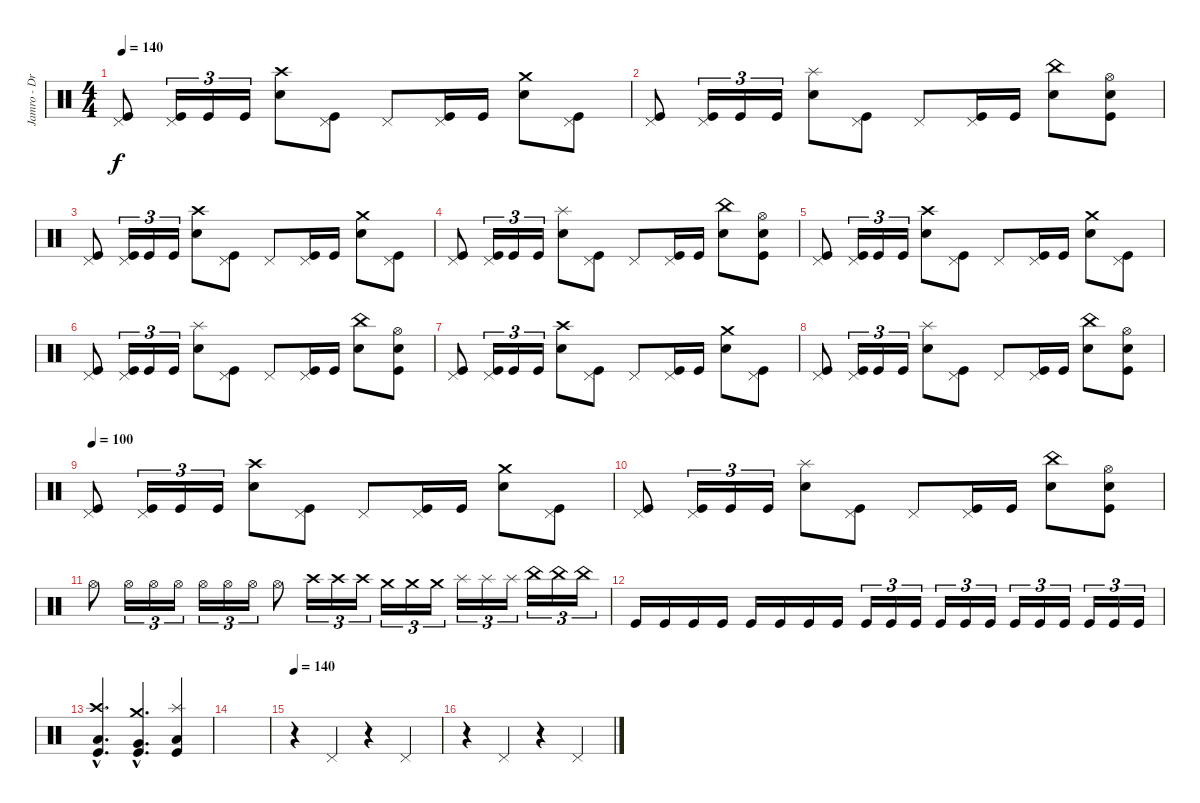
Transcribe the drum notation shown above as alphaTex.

\track ("Jamro - Drums" "Jamro - Dr") {instrument percussion}
\staff {score}
\articulation defaults
\ts (4 4)
\tempo 140
\clef neutral
\ks c
("Kick (hit)" "Pedal Hi-Hat (hit)").8{dy f} ("Kick (hit)" "Pedal Hi-Hat (hit)").16{tu (3 2)} "Kick (hit)".16{tu (3 2)} "Kick (hit)".16{tu (3 2)} ("Electric Snare (hit)" "Crash high (hit)").8 ("Kick (hit)" "Pedal Hi-Hat (hit)").8 "Pedal Hi-Hat (hit)".8 ("Kick (hit)" "Pedal Hi-Hat (hit)").16 "Kick (hit)".16 ("Electric Snare (hit)" "Crash medium (hit)").8 ("Kick (hit)" "Pedal Hi-Hat (hit)").8 |
("Kick (hit)" "Pedal Hi-Hat (hit)").8 ("Kick (hit)" "Pedal Hi-Hat (hit)").16{tu (3 2)} "Kick (hit)".16{tu (3 2)} "Kick (hit)".16{tu (3 2)} ("Electric Snare (hit)" "Splash (hit)").8 ("Kick (hit)" "Pedal Hi-Hat (hit)").8 "Pedal Hi-Hat (hit)".8 ("Kick (hit)" "Pedal Hi-Hat (hit)").16 "Kick (hit)".16 ("Electric Snare (hit)" "China (hit)").8 ("Kick (hit)" "Electric Snare (hit)" "Hi-Hat (open)").8 |
("Kick (hit)" "Pedal Hi-Hat (hit)").8 ("Kick (hit)" "Pedal Hi-Hat (hit)").16{tu (3 2)} "Kick (hit)".16{tu (3 2)} "Kick (hit)".16{tu (3 2)} ("Electric Snare (hit)" "Crash high (hit)").8 ("Kick (hit)" "Pedal Hi-Hat (hit)").8 "Pedal Hi-Hat (hit)".8 ("Kick (hit)" "Pedal Hi-Hat (hit)").16 "Kick (hit)".16 ("Electric Snare (hit)" "Crash medium (hit)").8 ("Kick (hit)" "Pedal Hi-Hat (hit)").8 |
("Kick (hit)" "Pedal Hi-Hat (hit)").8 ("Kick (hit)" "Pedal Hi-Hat (hit)").16{tu (3 2)} "Kick (hit)".16{tu (3 2)} "Kick (hit)".16{tu (3 2)} ("Electric Snare (hit)" "Splash (hit)").8 ("Kick (hit)" "Pedal Hi-Hat (hit)").8 "Pedal Hi-Hat (hit)".8 ("Kick (hit)" "Pedal Hi-Hat (hit)").16 "Kick (hit)".16 ("Electric Snare (hit)" "China (hit)").8 ("Kick (hit)" "Electric Snare (hit)" "Hi-Hat (open)").8 |
("Kick (hit)" "Pedal Hi-Hat (hit)").8 ("Kick (hit)" "Pedal Hi-Hat (hit)").16{tu (3 2)} "Kick (hit)".16{tu (3 2)} "Kick (hit)".16{tu (3 2)} ("Electric Snare (hit)" "Crash high (hit)").8 ("Kick (hit)" "Pedal Hi-Hat (hit)").8 "Pedal Hi-Hat (hit)".8 ("Kick (hit)" "Pedal Hi-Hat (hit)").16 "Kick (hit)".16 ("Electric Snare (hit)" "Crash medium (hit)").8 ("Kick (hit)" "Pedal Hi-Hat (hit)").8 |
("Kick (hit)" "Pedal Hi-Hat (hit)").8 ("Kick (hit)" "Pedal Hi-Hat (hit)").16{tu (3 2)} "Kick (hit)".16{tu (3 2)} "Kick (hit)".16{tu (3 2)} ("Electric Snare (hit)" "Splash (hit)").8 ("Kick (hit)" "Pedal Hi-Hat (hit)").8 "Pedal Hi-Hat (hit)".8 ("Kick (hit)" "Pedal Hi-Hat (hit)").16 "Kick (hit)".16 ("Electric Snare (hit)" "China (hit)").8 ("Kick (hit)" "Electric Snare (hit)" "Hi-Hat (open)").8 |
("Kick (hit)" "Pedal Hi-Hat (hit)").8 ("Kick (hit)" "Pedal Hi-Hat (hit)").16{tu (3 2)} "Kick (hit)".16{tu (3 2)} "Kick (hit)".16{tu (3 2)} ("Electric Snare (hit)" "Crash high (hit)").8 ("Kick (hit)" "Pedal Hi-Hat (hit)").8 "Pedal Hi-Hat (hit)".8 ("Kick (hit)" "Pedal Hi-Hat (hit)").16 "Kick (hit)".16 ("Electric Snare (hit)" "Crash medium (hit)").8 ("Kick (hit)" "Pedal Hi-Hat (hit)").8 |
("Kick (hit)" "Pedal Hi-Hat (hit)").8 ("Kick (hit)" "Pedal Hi-Hat (hit)").16{tu (3 2)} "Kick (hit)".16{tu (3 2)} "Kick (hit)".16{tu (3 2)} ("Electric Snare (hit)" "Splash (hit)").8 ("Kick (hit)" "Pedal Hi-Hat (hit)").8 "Pedal Hi-Hat (hit)".8 ("Kick (hit)" "Pedal Hi-Hat (hit)").16 "Kick (hit)".16 ("Electric Snare (hit)" "China (hit)").8 ("Kick (hit)" "Electric Snare (hit)" "Hi-Hat (open)").8 |
\tempo 100
("Kick (hit)" "Pedal Hi-Hat (hit)").8 ("Kick (hit)" "Pedal Hi-Hat (hit)").16{tu (3 2)} "Kick (hit)".16{tu (3 2)} "Kick (hit)".16{tu (3 2)} ("Electric Snare (hit)" "Crash high (hit)").8 ("Kick (hit)" "Pedal Hi-Hat (hit)").8 "Pedal Hi-Hat (hit)".8 ("Kick (hit)" "Pedal Hi-Hat (hit)").16 "Kick (hit)".16 ("Electric Snare (hit)" "Crash medium (hit)").8 ("Kick (hit)" "Pedal Hi-Hat (hit)").8 |
("Kick (hit)" "Pedal Hi-Hat (hit)").8 ("Kick (hit)" "Pedal Hi-Hat (hit)").16{tu (3 2)} "Kick (hit)".16{tu (3 2)} "Kick (hit)".16{tu (3 2)} ("Electric Snare (hit)" "Splash (hit)").8 ("Kick (hit)" "Pedal Hi-Hat (hit)").8 "Pedal Hi-Hat (hit)".8 ("Kick (hit)" "Pedal Hi-Hat (hit)").16 "Kick (hit)".16 ("Electric Snare (hit)" "China (hit)").8 ("Kick (hit)" "Electric Snare (hit)" "Hi-Hat (open)").8 |
"Hi-Hat (open)".8 "Hi-Hat (open)".16{tu (3 2)} "Hi-Hat (open)".16{tu (3 2)} "Hi-Hat (open)".16{tu (3 2)} "Hi-Hat (open)".16{tu (3 2)} "Hi-Hat (open)".16{tu (3 2)} "Hi-Hat (open)".16{tu (3 2)} "Hi-Hat (open)".8 "Crash high (hit)".16{tu (3 2)} "Crash high (hit)".16{tu (3 2)} "Crash high (hit)".16{tu (3 2)} "Crash medium (hit)".16{tu (3 2)} "Crash medium (hit)".16{tu (3 2)} "Crash medium (hit)".16{tu (3 2)} "Splash (hit)".16{tu (3 2)} "Splash (hit)".16{tu (3 2)} "Splash (hit)".16{tu (3 2)} "China (hit)".16{tu (3 2)} "China (hit)".16{tu (3 2)} "China (hit)".16{tu (3 2)} |
"Kick (hit)".16 "Kick (hit)".16 "Kick (hit)".16 "Kick (hit)".16 "Kick (hit)".16 "Kick (hit)".16 "Kick (hit)".16 "Kick (hit)".16 "Kick (hit)".16{tu (3 2)} "Kick (hit)".16{tu (3 2)} "Kick (hit)".16{tu (3 2)} "Kick (hit)".16{tu (3 2)} "Kick (hit)".16{tu (3 2)} "Kick (hit)".16{tu (3 2)} "Kick (hit)".16{tu (3 2)} "Kick (hit)".16{tu (3 2)} "Kick (hit)".16{tu (3 2)} "Kick (hit)".16{tu (3 2)} "Kick (hit)".16{tu (3 2)} "Kick (hit)".16{tu (3 2)} |
("Crash high (hit)"{hac} "Kick (hit)"{hac} "Low Tom (hit)"{hac}).4{d} ("Crash medium (hit)"{hac} "Kick (hit)"{hac} "Very Low Tom (hit)"{hac}).4{d} ("Splash (hit)" "Kick (hit)" "Low Floor Tom (hit)").4 |
|
\tempo 140
r.4 "Pedal Hi-Hat (hit)".4 r.4 "Pedal Hi-Hat (hit)".4 |
r.4 "Pedal Hi-Hat (hit)".4 r.4 "Pedal Hi-Hat (hit)".4
